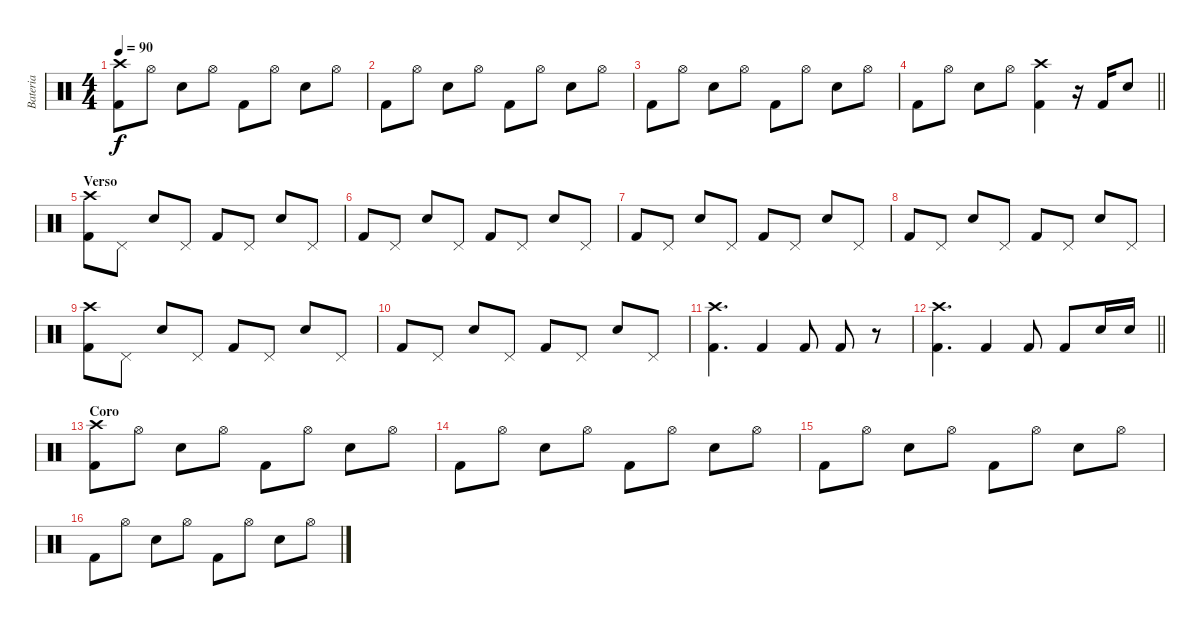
\track ("Bateria" "Bateria") {instrument percussion}
\staff {score}
\articulation defaults
\ts (4 4)
\tempo 90
\clef neutral
\ks c
("Kick (hit) 2" "Crash high (hit)").8{dy f} "Hi-Hat (open)".8 "Snare (hit) 2".8 "Hi-Hat (open)".8 "Kick (hit) 2".8 "Hi-Hat (open)".8 "Snare (hit) 2".8 "Hi-Hat (open)".8 |
"Kick (hit) 2".8 "Hi-Hat (open)".8 "Snare (hit) 2".8 "Hi-Hat (open)".8 "Kick (hit) 2".8 "Hi-Hat (open)".8 "Snare (hit) 2".8 "Hi-Hat (open)".8 |
"Kick (hit) 2".8 "Hi-Hat (open)".8 "Snare (hit) 2".8 "Hi-Hat (open)".8 "Kick (hit) 2".8 "Hi-Hat (open)".8 "Snare (hit) 2".8 "Hi-Hat (open)".8 |
\barLineRight lightlight "Kick (hit) 2".8 "Hi-Hat (open)".8 "Snare (hit) 2".8 "Hi-Hat (open)".8
("Kick (hit) 2" "Crash high (hit)").4 r.16 "Kick (hit) 2".16 "Snare (hit) 2".8 |
\section ("" "Verso")
("Kick (hit) 2" "Crash high (hit)").8 "Pedal Hi-Hat (hit)".8 "Snare (hit) 2".8 "Pedal Hi-Hat (hit)".8 "Kick (hit) 2".8 "Pedal Hi-Hat (hit)".8 "Snare (hit) 2".8 "Pedal Hi-Hat (hit)".8 |
"Kick (hit) 2".8 "Pedal Hi-Hat (hit)".8 "Snare (hit) 2".8 "Pedal Hi-Hat (hit)".8 "Kick (hit) 2".8 "Pedal Hi-Hat (hit)".8 "Snare (hit) 2".8 "Pedal Hi-Hat (hit)".8 |
"Kick (hit) 2".8 "Pedal Hi-Hat (hit)".8 "Snare (hit) 2".8 "Pedal Hi-Hat (hit)".8 "Kick (hit) 2".8 "Pedal Hi-Hat (hit)".8 "Snare (hit) 2".8 "Pedal Hi-Hat (hit)".8 |
"Kick (hit) 2".8 "Pedal Hi-Hat (hit)".8 "Snare (hit) 2".8 "Pedal Hi-Hat (hit)".8 "Kick (hit) 2".8 "Pedal Hi-Hat (hit)".8 "Snare (hit) 2".8 "Pedal Hi-Hat (hit)".8 |
("Kick (hit) 2" "Crash high (hit)").8 "Pedal Hi-Hat (hit)".8 "Snare (hit) 2".8 "Pedal Hi-Hat (hit)".8 "Kick (hit) 2".8 "Pedal Hi-Hat (hit)".8 "Snare (hit) 2".8 "Pedal Hi-Hat (hit)".8 |
"Kick (hit) 2".8 "Pedal Hi-Hat (hit)".8 "Snare (hit) 2".8 "Pedal Hi-Hat (hit)".8 "Kick (hit) 2".8 "Pedal Hi-Hat (hit)".8 "Snare (hit) 2".8 "Pedal Hi-Hat (hit)".8 |
("Kick (hit) 2" "Crash high (hit)").4{d} "Kick (hit) 2".4 "Kick (hit) 2".8 "Kick (hit) 2".8 r.8 |
\barLineRight lightlight
("Kick (hit) 2" "Crash high (hit)").4{d} "Kick (hit) 2".4 "Kick (hit) 2".8 "Kick (hit) 2".8 "Snare (hit) 2".16 "Snare (hit) 2".16 |
\section ("" "Coro")
("Kick (hit) 2" "Crash high (hit)").8 "Hi-Hat (open)".8 "Snare (hit) 2".8 "Hi-Hat (open)".8 "Kick (hit) 2".8 "Hi-Hat (open)".8 "Snare (hit) 2".8 "Hi-Hat (open)".8 |
"Kick (hit) 2".8 "Hi-Hat (open)".8 "Snare (hit) 2".8 "Hi-Hat (open)".8 "Kick (hit) 2".8 "Hi-Hat (open)".8 "Snare (hit) 2".8 "Hi-Hat (open)".8 |
"Kick (hit) 2".8 "Hi-Hat (open)".8 "Snare (hit) 2".8 "Hi-Hat (open)".8 "Kick (hit) 2".8 "Hi-Hat (open)".8 "Snare (hit) 2".8 "Hi-Hat (open)".8 |
"Kick (hit) 2".8 "Hi-Hat (open)".8 "Snare (hit) 2".8 "Hi-Hat (open)".8 "Kick (hit) 2".8 "Hi-Hat (open)".8 "Snare (hit) 2".8 "Hi-Hat (open)".8
